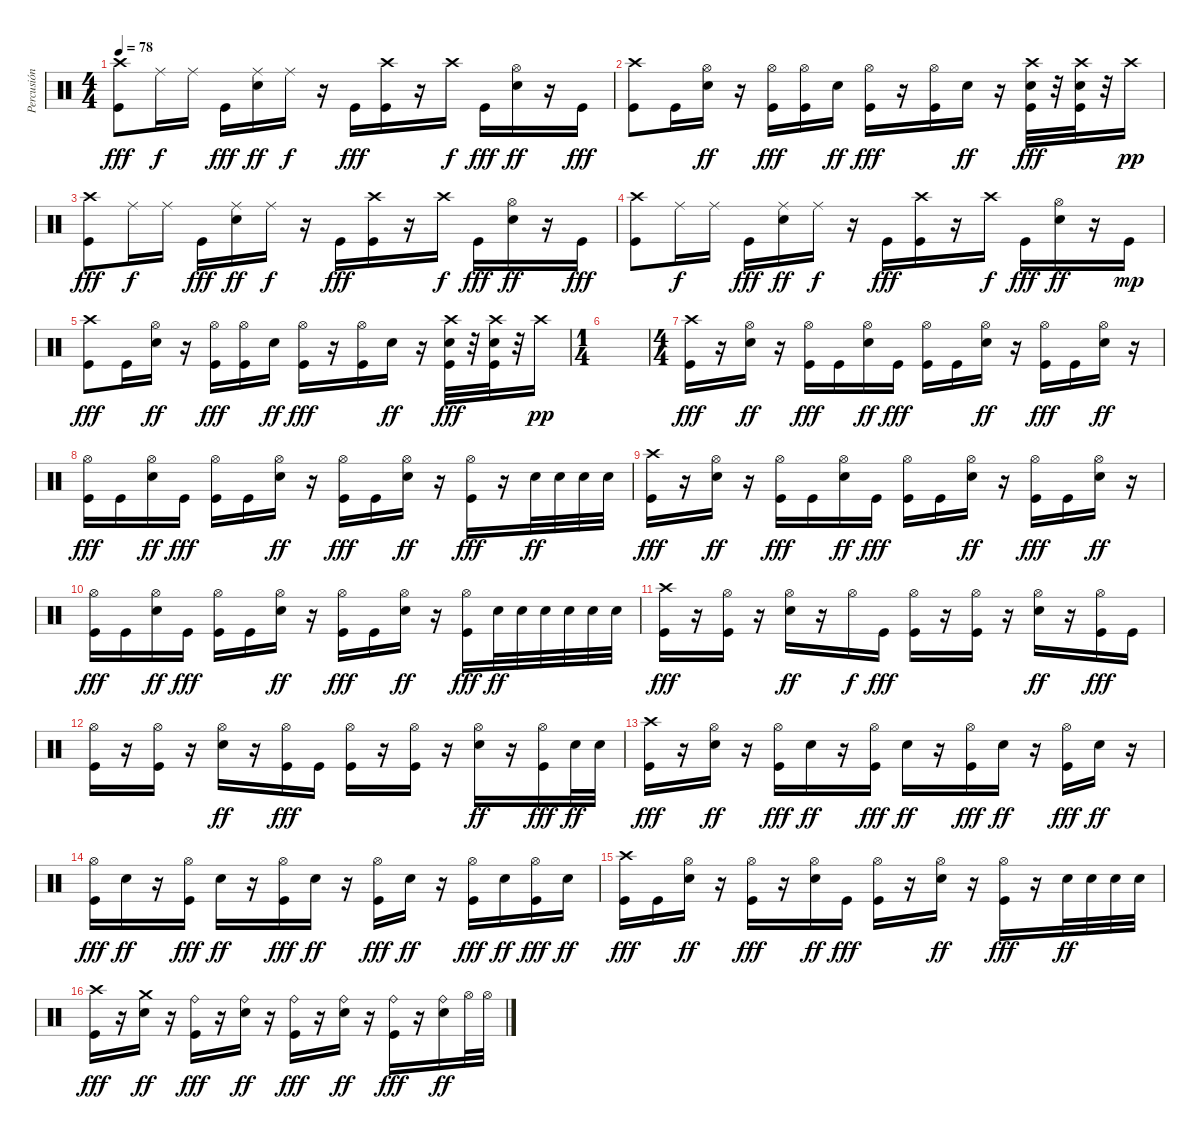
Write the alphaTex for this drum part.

\track ("Percusión" "Percusión") {instrument percussion}
\staff {score}
\articulation defaults
\ts (4 4)
\tempo 78
\clef neutral
\ks c
("Crash high (hit)" "Kick (hit)").8{dy fff} "Ride (middle)".16{dy f} "Ride (middle)".16 "Kick (hit)".16{dy fff} ("Ride (middle)" "Snare (hit) 2").16{dy ff} "Ride (middle)".16{dy f} r.16 "Kick (hit)".16{dy fff} ("Crash high (hit)" "Kick (hit)").16 r.16 "Crash high (hit)".16{dy f} "Kick (hit)".16{dy fff} ("Hi-Hat (open)" "Snare (hit) 2").16{dy ff} r.16 "Kick (hit)".16{dy fff} |
("Crash high (hit)" "Kick (hit)").8 "Kick (hit)".16 ("Hi-Hat (open)" "Snare (hit) 2").16{dy ff} r.16 ("Hi-Hat (open)" "Kick (hit)").16{dy fff} ("Hi-Hat (open)" "Kick (hit)").16 "Snare (hit) 2".16{dy ff} ("Hi-Hat (open)" "Kick (hit)").16{dy fff} r.16 ("Hi-Hat (open)" "Kick (hit)").16 "Snare (hit) 2".16{dy ff} r.16 ("Crash high (hit)" "Snare (hit) 2" "Kick (hit)").32{dy fff} r.32 ("Crash high (hit)" "Snare (hit) 2" "Kick (hit)").32 r.32 "Crash high (hit)".16{dy pp} |
("Crash high (hit)" "Kick (hit)").8{dy fff} "Ride (middle)".16{dy f} "Ride (middle)".16 "Kick (hit)".16{dy fff} ("Ride (middle)" "Snare (hit) 2").16{dy ff} "Ride (middle)".16{dy f} r.16 "Kick (hit)".16{dy fff} ("Crash high (hit)" "Kick (hit)").16 r.16 "Crash high (hit)".16{dy f} "Kick (hit)".16{dy fff} ("Hi-Hat (open)" "Snare (hit) 2").16{dy ff} r.16 "Kick (hit)".16{dy fff} |
("Crash high (hit)" "Kick (hit)").8 "Ride (middle)".16{dy f} "Ride (middle)".16 "Kick (hit)".16{dy fff} ("Ride (middle)" "Snare (hit) 2").16{dy ff} "Ride (middle)".16{dy f} r.16 "Kick (hit)".16{dy fff} ("Crash high (hit)" "Kick (hit)").16 r.16 "Crash high (hit)".16{dy f} "Kick (hit)".16{dy fff} ("Hi-Hat (open)" "Snare (hit) 2").16{dy ff} r.16 "Kick (hit)".16{dy mp} |
("Crash high (hit)" "Kick (hit)").8{dy fff} "Kick (hit)".16 ("Hi-Hat (open)" "Snare (hit) 2").16{dy ff} r.16 ("Hi-Hat (open)" "Kick (hit)").16{dy fff} ("Hi-Hat (open)" "Kick (hit)").16 "Snare (hit) 2".16{dy ff} ("Hi-Hat (open)" "Kick (hit)").16{dy fff} r.16 ("Hi-Hat (open)" "Kick (hit)").16 "Snare (hit) 2".16{dy ff} r.16 ("Crash high (hit)" "Snare (hit) 2" "Kick (hit)").32{dy fff} r.32 ("Crash high (hit)" "Snare (hit) 2" "Kick (hit)").32 r.32 "Crash high (hit)".16{dy pp} |
\ts (1 4)
|
\ts (4 4)
("Crash high (hit)" "Kick (hit)").16{dy fff} r.16 ("Hi-Hat (open)" "Snare (hit) 2").16{dy ff} r.16 ("Hi-Hat (open)" "Kick (hit)").16{dy fff} "Kick (hit)".16 ("Hi-Hat (open)" "Snare (hit) 2").16{dy ff} "Kick (hit)".16{dy fff} ("Hi-Hat (open)" "Kick (hit)").16 "Kick (hit)".16 ("Hi-Hat (open)" "Snare (hit) 2").16{dy ff} r.16 ("Hi-Hat (open)" "Kick (hit)").16{dy fff} "Kick (hit)".16 ("Hi-Hat (open)" "Snare (hit) 2").16{dy ff} r.16 |
("Hi-Hat (open)" "Kick (hit)").16{dy fff} "Kick (hit)".16 ("Hi-Hat (open)" "Snare (hit) 2").16{dy ff} "Kick (hit)".16{dy fff} ("Hi-Hat (open)" "Kick (hit)").16 "Kick (hit)".16 ("Hi-Hat (open)" "Snare (hit) 2").16{dy ff} r.16 ("Hi-Hat (open)" "Kick (hit)").16{dy fff} "Kick (hit)".16 ("Hi-Hat (open)" "Snare (hit) 2").16{dy ff} r.16 ("Hi-Hat (open)" "Kick (hit)").16{dy fff} r.16 "Snare (hit) 2".32{dy ff} "Snare (hit) 2".32 "Snare (hit) 2".32 "Snare (hit) 2".32 |
("Crash high (hit)" "Kick (hit)").16{dy fff} r.16 ("Hi-Hat (open)" "Snare (hit) 2").16{dy ff} r.16 ("Hi-Hat (open)" "Kick (hit)").16{dy fff} "Kick (hit)".16 ("Hi-Hat (open)" "Snare (hit) 2").16{dy ff} "Kick (hit)".16{dy fff} ("Hi-Hat (open)" "Kick (hit)").16 "Kick (hit)".16 ("Hi-Hat (open)" "Snare (hit) 2").16{dy ff} r.16 ("Hi-Hat (open)" "Kick (hit)").16{dy fff} "Kick (hit)".16 ("Hi-Hat (open)" "Snare (hit) 2").16{dy ff} r.16 |
("Hi-Hat (open)" "Kick (hit)").16{dy fff} "Kick (hit)".16 ("Hi-Hat (open)" "Snare (hit) 2").16{dy ff} "Kick (hit)".16{dy fff} ("Hi-Hat (open)" "Kick (hit)").16 "Kick (hit)".16 ("Hi-Hat (open)" "Snare (hit) 2").16{dy ff} r.16 ("Hi-Hat (open)" "Kick (hit)").16{dy fff} "Kick (hit)".16 ("Hi-Hat (open)" "Snare (hit) 2").16{dy ff} r.16 ("Hi-Hat (open)" "Kick (hit)").16{dy fff} "Snare (hit) 2".32{dy ff} "Snare (hit) 2".32 "Snare (hit) 2".32 "Snare (hit) 2".32 "Snare (hit) 2".32 "Snare (hit) 2".32 |
("Crash high (hit)" "Kick (hit)").16{dy fff} r.16 ("Hi-Hat (open)" "Kick (hit)").16 r.16 ("Hi-Hat (open)" "Snare (hit) 2").16{dy ff} r.16 "Hi-Hat (open)".16{dy f} "Kick (hit)".16{dy fff} ("Hi-Hat (open)" "Kick (hit)").16 r.16 ("Hi-Hat (open)" "Kick (hit)").16 r.16 ("Hi-Hat (open)" "Snare (hit) 2").16{dy ff} r.16 ("Hi-Hat (open)" "Kick (hit)").16{dy fff} "Kick (hit)".16 |
("Hi-Hat (open)" "Kick (hit)").16 r.16 ("Hi-Hat (open)" "Kick (hit)").16 r.16 ("Hi-Hat (open)" "Snare (hit) 2").16{dy ff} r.16 ("Hi-Hat (open)" "Kick (hit)").16{dy fff} "Kick (hit)".16 ("Hi-Hat (open)" "Kick (hit)").16 r.16 ("Hi-Hat (open)" "Kick (hit)").16 r.16 ("Hi-Hat (open)" "Snare (hit) 2").16{dy ff} r.16 ("Hi-Hat (open)" "Kick (hit)").16{dy fff} "Snare (hit) 2".32{dy ff} "Snare (hit) 2".32 |
("Crash high (hit)" "Kick (hit)").16{dy fff} r.16 ("Hi-Hat (open)" "Snare (hit) 2").16{dy ff} r.16 ("Hi-Hat (open)" "Kick (hit)").16{dy fff} "Snare (hit) 2".16{dy ff} r.16 ("Hi-Hat (open)" "Kick (hit)").16{dy fff} "Snare (hit) 2".16{dy ff} r.16 ("Hi-Hat (open)" "Kick (hit)").16{dy fff} "Snare (hit) 2".16{dy ff} r.16 ("Hi-Hat (open)" "Kick (hit)").16{dy fff} "Snare (hit) 2".16{dy ff} r.16 |
("Hi-Hat (open)" "Kick (hit)").16{dy fff} "Snare (hit) 2".16{dy ff} r.16 ("Hi-Hat (open)" "Kick (hit)").16{dy fff} "Snare (hit) 2".16{dy ff} r.16 ("Hi-Hat (open)" "Kick (hit)").16{dy fff} "Snare (hit) 2".16{dy ff} r.16 ("Hi-Hat (open)" "Kick (hit)").16{dy fff} "Snare (hit) 2".16{dy ff} r.16 ("Hi-Hat (open)" "Kick (hit)").16{dy fff} "Snare (hit) 2".16{dy ff} ("Hi-Hat (open)" "Kick (hit)").16{dy fff} "Snare (hit) 2".16{dy ff} |
("Crash high (hit)" "Kick (hit)").16{dy fff} "Kick (hit)".16 ("Hi-Hat (open)" "Snare (hit) 2").16{dy ff} r.16 ("Hi-Hat (open)" "Kick (hit)").16{dy fff} r.16 ("Hi-Hat (open)" "Snare (hit) 2").16{dy ff} "Kick (hit)".16{dy fff} ("Hi-Hat (open)" "Kick (hit)").16 r.16 ("Hi-Hat (open)" "Snare (hit) 2").16{dy ff} r.16 ("Hi-Hat (open)" "Kick (hit)").16{dy fff} r.16 "Snare (hit) 2".32{dy ff} "Snare (hit) 2".32 "Snare (hit) 2".32 "Snare (hit) 2".32 |
("Crash high (hit)" "Kick (hit)").16{dy fff} r.16 ("Crash medium (hit)" "Snare (hit) 2").16{dy ff} r.16 ("Ride (bell)" "Kick (hit)").16{dy fff} r.16 ("Ride (bell)" "Snare (hit) 2").16{dy ff} r.16 ("Ride (bell)" "Kick (hit)").16{dy fff} r.16 ("Ride (bell)" "Snare (hit) 2").16{dy ff} r.16 ("Ride (bell)" "Kick (hit)").16{dy fff} r.16 ("Ride (bell)" "Snare (hit) 2").16{dy ff} "Hi-Hat (open)".32 "Hi-Hat (open)".32
